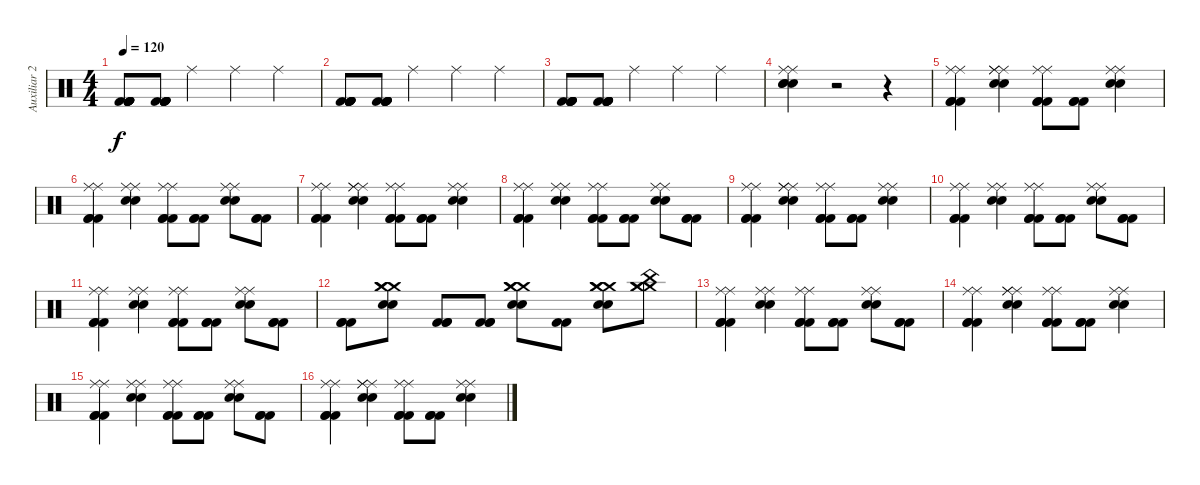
\track ("Auxiliar 2" "Auxiliar 2") {instrument percussion}
\staff {score}
\articulation defaults
\ts (4 4)
\tempo 120
\clef neutral
\ks c
("Kick (hit) 2" "Kick (hit) 2" "Kick (hit) 2" "Kick (hit) 2" "Kick (hit) 2" "Kick (hit) 2").8{dy f} ("Kick (hit) 2" "Kick (hit) 2" "Kick (hit) 2" "Kick (hit) 2" "Kick (hit) 2" "Kick (hit) 2").8 "Ride (middle)".4 "Ride (middle)".4 "Ride (middle)".4 |
("Kick (hit) 2" "Kick (hit) 2" "Kick (hit) 2" "Kick (hit) 2" "Kick (hit) 2" "Kick (hit) 2").8 ("Kick (hit) 2" "Kick (hit) 2" "Kick (hit) 2" "Kick (hit) 2" "Kick (hit) 2" "Kick (hit) 2").8 "Ride (middle)".4 "Ride (middle)".4 "Ride (middle)".4 |
("Kick (hit) 2" "Kick (hit) 2" "Kick (hit) 2" "Kick (hit) 2" "Kick (hit) 2" "Kick (hit) 2").8 ("Kick (hit) 2" "Kick (hit) 2" "Kick (hit) 2" "Kick (hit) 2" "Kick (hit) 2" "Kick (hit) 2").8 "Ride (middle)".4 "Ride (middle)".4 "Ride (middle)".4 |
("Snare (hit) 2" "Snare (hit) 2" "Snare (hit) 2" "Ride (middle)" "Ride (middle)").4 r.2 r.4 |
("Kick (hit) 2" "Kick (hit) 2" "Kick (hit) 2" "Ride (middle)" "Ride (middle)").4 ("Snare (hit) 2" "Snare (hit) 2" "Ride (middle)" "Ride (middle)" "Ride (middle)").4 ("Kick (hit) 2" "Kick (hit) 2" "Kick (hit) 2" "Ride (middle)" "Ride (middle)").8 ("Kick (hit) 2" "Kick (hit) 2" "Kick (hit) 2").8 ("Snare (hit) 2" "Snare (hit) 2" "Ride (middle)" "Ride (middle)").4 |
("Kick (hit) 2" "Kick (hit) 2" "Kick (hit) 2" "Ride (middle)" "Ride (middle)").4 ("Snare (hit) 2" "Snare (hit) 2" "Ride (middle)" "Ride (middle)").4 ("Kick (hit) 2" "Kick (hit) 2" "Kick (hit) 2" "Ride (middle)" "Ride (middle)").8 ("Kick (hit) 2" "Kick (hit) 2" "Kick (hit) 2").8 ("Snare (hit) 2" "Snare (hit) 2" "Ride (middle)" "Ride (middle)").8 ("Kick (hit) 2" "Kick (hit) 2" "Kick (hit) 2").8 |
("Kick (hit) 2" "Kick (hit) 2" "Kick (hit) 2" "Ride (middle)" "Ride (middle)").4 ("Snare (hit) 2" "Snare (hit) 2" "Ride (middle)" "Ride (middle)" "Ride (middle)").4 ("Kick (hit) 2" "Kick (hit) 2" "Kick (hit) 2" "Ride (middle)" "Ride (middle)").8 ("Kick (hit) 2" "Kick (hit) 2" "Kick (hit) 2").8 ("Snare (hit) 2" "Snare (hit) 2" "Ride (middle)" "Ride (middle)").4 |
("Kick (hit) 2" "Kick (hit) 2" "Kick (hit) 2" "Ride (middle)" "Ride (middle)").4 ("Snare (hit) 2" "Snare (hit) 2" "Ride (middle)" "Ride (middle)").4 ("Kick (hit) 2" "Kick (hit) 2" "Kick (hit) 2" "Ride (middle)" "Ride (middle)").8 ("Kick (hit) 2" "Kick (hit) 2" "Kick (hit) 2").8 ("Snare (hit) 2" "Snare (hit) 2" "Ride (middle)" "Ride (middle)").8 ("Kick (hit) 2" "Kick (hit) 2" "Kick (hit) 2").8 |
("Kick (hit) 2" "Kick (hit) 2" "Kick (hit) 2" "Ride (middle)" "Ride (middle)").4 ("Snare (hit) 2" "Snare (hit) 2" "Ride (middle)" "Ride (middle)" "Ride (middle)").4 ("Kick (hit) 2" "Kick (hit) 2" "Kick (hit) 2" "Ride (middle)" "Ride (middle)").8 ("Kick (hit) 2" "Kick (hit) 2" "Kick (hit) 2").8 ("Snare (hit) 2" "Snare (hit) 2" "Ride (middle)" "Ride (middle)").4 |
("Kick (hit) 2" "Kick (hit) 2" "Kick (hit) 2" "Ride (middle)" "Ride (middle)").4 ("Snare (hit) 2" "Snare (hit) 2" "Ride (middle)" "Ride (middle)").4 ("Kick (hit) 2" "Kick (hit) 2" "Kick (hit) 2" "Ride (middle)" "Ride (middle)").8 ("Kick (hit) 2" "Kick (hit) 2" "Kick (hit) 2").8 ("Snare (hit) 2" "Snare (hit) 2" "Ride (middle)" "Ride (middle)").8 ("Kick (hit) 2" "Kick (hit) 2" "Kick (hit) 2").8 |
("Kick (hit) 2" "Kick (hit) 2" "Kick (hit) 2" "Ride (middle)" "Ride (middle)").4 ("Snare (hit) 2" "Snare (hit) 2" "Ride (middle)" "Ride (middle)").4 ("Kick (hit) 2" "Kick (hit) 2" "Kick (hit) 2" "Ride (middle)" "Ride (middle)").8 ("Kick (hit) 2" "Kick (hit) 2" "Kick (hit) 2").8 ("Snare (hit) 2" "Snare (hit) 2" "Ride (middle)" "Ride (middle)").8 ("Kick (hit) 2" "Kick (hit) 2" "Kick (hit) 2").8 |
("Kick (hit) 2" "Kick (hit) 2" "Kick (hit) 2").8 ("Snare (hit) 2" "Snare (hit) 2" "Crash medium (hit)" "Crash medium (hit)" "Crash medium (hit)").8 ("Kick (hit) 2" "Kick (hit) 2" "Kick (hit) 2").8 ("Kick (hit) 2" "Kick (hit) 2" "Kick (hit) 2").8 ("Snare (hit) 2" "Snare (hit) 2" "Crash medium (hit)" "Crash medium (hit)" "Crash medium (hit)").8 ("Kick (hit) 2" "Kick (hit) 2").8 ("Snare (hit) 2" "Snare (hit) 2" "Crash medium (hit)" "Crash medium (hit)" "Crash medium (hit)").8 ("Crash medium (hit)" "Crash medium (hit)" "Crash medium (hit)" "China (hit)").8 |
("Kick (hit) 2" "Kick (hit) 2" "Kick (hit) 2" "Ride (middle)" "Ride (middle)").4 ("Snare (hit) 2" "Snare (hit) 2" "Ride (middle)" "Ride (middle)").4 ("Kick (hit) 2" "Kick (hit) 2" "Kick (hit) 2" "Ride (middle)" "Ride (middle)").8 ("Kick (hit) 2" "Kick (hit) 2" "Kick (hit) 2").8 ("Snare (hit) 2" "Snare (hit) 2" "Ride (middle)" "Ride (middle)").8 ("Kick (hit) 2" "Kick (hit) 2" "Kick (hit) 2").8 |
("Kick (hit) 2" "Kick (hit) 2" "Kick (hit) 2" "Ride (middle)" "Ride (middle)").4 ("Snare (hit) 2" "Snare (hit) 2" "Ride (middle)" "Ride (middle)" "Ride (middle)").4 ("Kick (hit) 2" "Kick (hit) 2" "Kick (hit) 2" "Ride (middle)" "Ride (middle)").8 ("Kick (hit) 2" "Kick (hit) 2" "Kick (hit) 2").8 ("Snare (hit) 2" "Snare (hit) 2" "Ride (middle)" "Ride (middle)").4 |
("Kick (hit) 2" "Kick (hit) 2" "Kick (hit) 2" "Ride (middle)" "Ride (middle)").4 ("Snare (hit) 2" "Snare (hit) 2" "Ride (middle)" "Ride (middle)").4 ("Kick (hit) 2" "Kick (hit) 2" "Kick (hit) 2" "Ride (middle)" "Ride (middle)").8 ("Kick (hit) 2" "Kick (hit) 2" "Kick (hit) 2").8 ("Snare (hit) 2" "Snare (hit) 2" "Ride (middle)" "Ride (middle)").8 ("Kick (hit) 2" "Kick (hit) 2" "Kick (hit) 2").8 |
("Kick (hit) 2" "Kick (hit) 2" "Kick (hit) 2" "Ride (middle)" "Ride (middle)").4 ("Snare (hit) 2" "Snare (hit) 2" "Ride (middle)" "Ride (middle)" "Ride (middle)").4 ("Kick (hit) 2" "Kick (hit) 2" "Kick (hit) 2" "Ride (middle)" "Ride (middle)").8 ("Kick (hit) 2" "Kick (hit) 2" "Kick (hit) 2").8 ("Snare (hit) 2" "Snare (hit) 2" "Ride (middle)" "Ride (middle)").4
